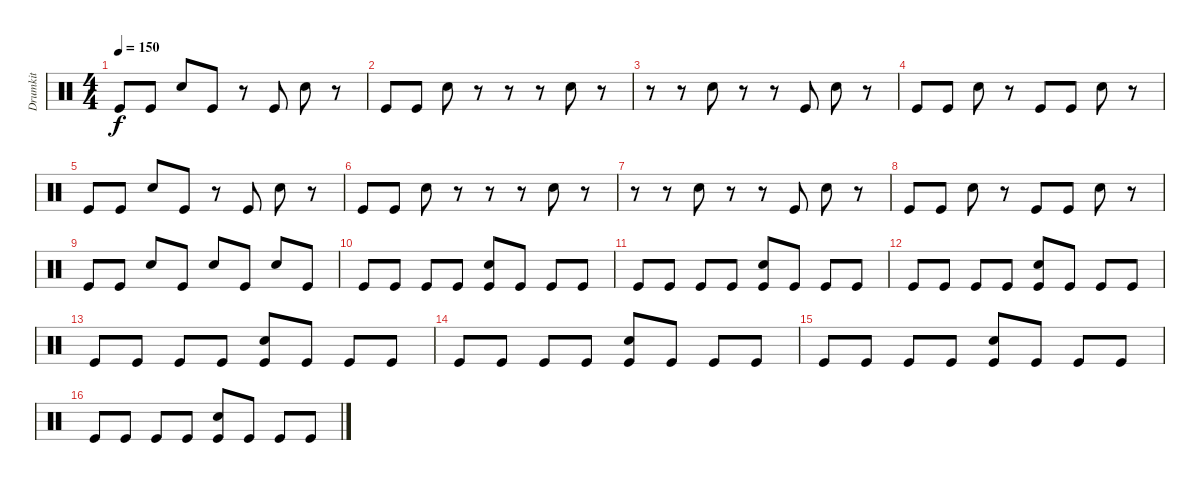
\track ("Drumkit" "Drumkit") {instrument percussion}
\staff {score}
\articulation defaults
\ts (4 4)
\tempo 150
\clef neutral
\ks c "Kick (hit)".8{dy f} "Kick (hit)".8 "Snare (hit) 2".8 "Kick (hit)".8
r.8 "Kick (hit)".8 "Snare (hit) 2".8 r.8 |
"Kick (hit)".8 "Kick (hit)".8 "Snare (hit) 2".8 r.8 r.8 r.8 "Snare (hit) 2".8 r.8 |
r.8 r.8 "Snare (hit) 2".8 r.8 r.8 "Kick (hit)".8 "Snare (hit) 2".8 r.8 |
"Kick (hit)".8 "Kick (hit)".8 "Snare (hit) 2".8 r.8 "Kick (hit)".8 "Kick (hit)".8 "Snare (hit) 2".8 r.8 |
"Kick (hit)".8 "Kick (hit)".8 "Snare (hit) 2".8 "Kick (hit)".8 r.8 "Kick (hit)".8 "Snare (hit) 2".8 r.8 |
"Kick (hit)".8 "Kick (hit)".8 "Snare (hit) 2".8 r.8 r.8 r.8 "Snare (hit) 2".8 r.8 |
r.8 r.8 "Snare (hit) 2".8 r.8 r.8 "Kick (hit)".8 "Snare (hit) 2".8 r.8 |
"Kick (hit)".8 "Kick (hit)".8 "Snare (hit) 2".8 r.8 "Kick (hit)".8 "Kick (hit)".8 "Snare (hit) 2".8 r.8 |
"Kick (hit)".8 "Kick (hit)".8 "Snare (hit) 2".8 "Kick (hit)".8 "Snare (hit) 2".8 "Kick (hit)".8 "Snare (hit) 2".8 "Kick (hit)".8 |
"Kick (hit)".8 "Kick (hit)".8 "Kick (hit)".8 "Kick (hit)".8 ("Kick (hit)" "Snare (hit) 2").8 "Kick (hit)".8 "Kick (hit)".8 "Kick (hit)".8 |
"Kick (hit)".8 "Kick (hit)".8 "Kick (hit)".8 "Kick (hit)".8 ("Kick (hit)" "Snare (hit) 2").8 "Kick (hit)".8 "Kick (hit)".8 "Kick (hit)".8 |
"Kick (hit)".8 "Kick (hit)".8 "Kick (hit)".8 "Kick (hit)".8 ("Kick (hit)" "Snare (hit) 2").8 "Kick (hit)".8 "Kick (hit)".8 "Kick (hit)".8 |
"Kick (hit)".8 "Kick (hit)".8 "Kick (hit)".8 "Kick (hit)".8 ("Kick (hit)" "Snare (hit) 2").8 "Kick (hit)".8 "Kick (hit)".8 "Kick (hit)".8 |
"Kick (hit)".8 "Kick (hit)".8 "Kick (hit)".8 "Kick (hit)".8 ("Kick (hit)" "Snare (hit) 2").8 "Kick (hit)".8 "Kick (hit)".8 "Kick (hit)".8 |
"Kick (hit)".8 "Kick (hit)".8 "Kick (hit)".8 "Kick (hit)".8 ("Kick (hit)" "Snare (hit) 2").8 "Kick (hit)".8 "Kick (hit)".8 "Kick (hit)".8 |
"Kick (hit)".8 "Kick (hit)".8 "Kick (hit)".8 "Kick (hit)".8 ("Kick (hit)" "Snare (hit) 2").8 "Kick (hit)".8 "Kick (hit)".8 "Kick (hit)".8
